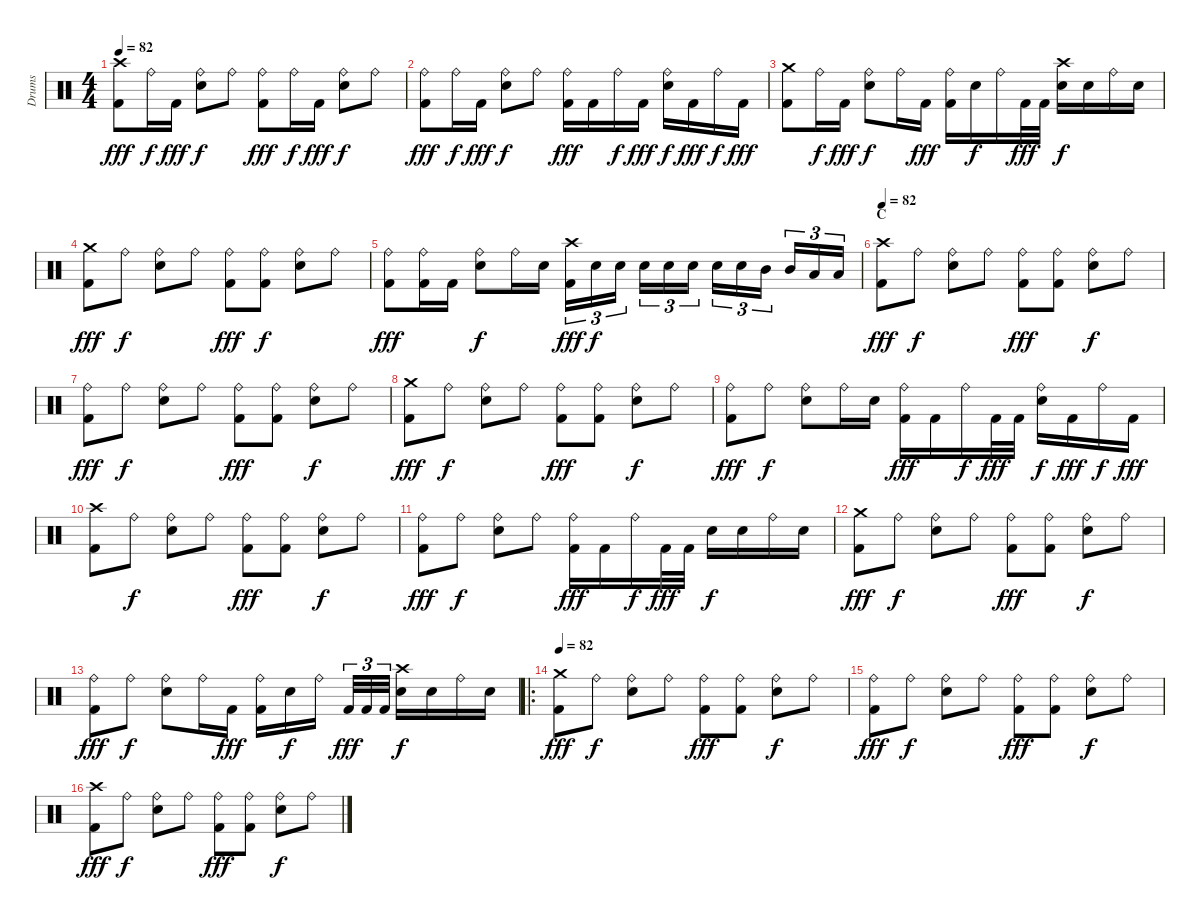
\track ("Drums" "Drums") {instrument percussion}
\staff {score}
\articulation defaults
\ts (4 4)
\tempo 82
\clef neutral
\ks c
("Crash high (hit)" "Kick (hit) 2").8{dy fff} "Ride (bell)".16{dy f} "Kick (hit) 2".16{dy fff} ("Ride (bell)" "Snare (hit) 2").8{dy f} "Ride (bell)".8 ("Ride (bell)" "Kick (hit) 2").8{dy fff} "Ride (bell)".16{dy f} "Kick (hit) 2".16{dy fff} ("Ride (bell)" "Snare (hit) 2").8{dy f} "Ride (bell)".8 |
("Ride (bell)" "Kick (hit) 2").8{dy fff} "Ride (bell)".16{dy f} "Kick (hit) 2".16{dy fff} ("Ride (bell)" "Snare (hit) 2").8{dy f} "Ride (bell)".8 ("Ride (bell)" "Kick (hit) 2").16{dy fff} "Kick (hit) 2".16 "Ride (bell)".16{dy f} "Kick (hit) 2".16{dy fff} ("Ride (bell)" "Snare (hit) 2").16{dy f} "Kick (hit) 2".16{dy fff} "Ride (bell)".16{dy f} "Kick (hit) 2".16{dy fff} |
("Crash medium (hit)" "Kick (hit) 2").8 "Ride (bell)".16{dy f} "Kick (hit) 2".16{dy fff} ("Ride (bell)" "Snare (hit) 2").8{dy f} "Ride (bell)".16 "Kick (hit) 2".16{dy fff} ("Ride (bell)" "Kick (hit) 2").16 "Snare (hit) 2".16{dy f} "Ride (bell)".16 "Kick (hit) 2".32{dy fff} "Kick (hit) 2".32 ("Crash high (hit)" "Snare (hit) 2").16{dy f} "Snare (hit) 2".16 "Ride (bell)".16 "Snare (hit) 2".16 |
("Crash medium (hit)" "Kick (hit) 2").8{dy fff} "Ride (bell)".8{dy f} ("Ride (bell)" "Snare (hit) 2").8 "Ride (bell)".8 ("Ride (bell)" "Kick (hit) 2").8{dy fff} ("Ride (bell)" "Kick (hit) 2").8{dy f} ("Ride (bell)" "Snare (hit) 2").8 "Ride (bell)".8 |
("Ride (bell)" "Kick (hit) 2").8{dy fff} ("Ride (bell)" "Kick (hit) 2").16 "Kick (hit) 2".16 ("Ride (bell)" "Snare (hit) 2").8{dy f} "Ride (bell)".16 "Snare (hit) 2".16 ("Crash high (hit)" "Kick (hit) 2").16{tu (3 2) dy fff} "Snare (hit) 2".16{tu (3 2) dy f} "Snare (hit) 2".16{tu (3 2)} "Snare (hit) 2".16{tu (3 2)} "Snare (hit) 2".16{tu (3 2)} "Snare (hit) 2".16{tu (3 2)} "Snare (hit) 2".16{tu (3 2)} "Snare (hit) 2".16{tu (3 2)} "Mid Tom (hit)".16{tu (3 2)} "Mid Tom (hit)".16{tu (3 2)} "Low Tom (hit)".16{tu (3 2)} "Low Tom (hit)".16{tu (3 2)} |
\section ("" "C")
\tempo 82
("Crash high (hit)" "Kick (hit) 2").8{dy fff} "Ride (bell)".8{dy f} ("Ride (bell)" "Snare (hit) 2").8 "Ride (bell)".8 ("Ride (bell)" "Kick (hit) 2").8{dy fff} ("Ride (bell)" "Kick (hit) 2").8 ("Ride (bell)" "Snare (hit) 2").8{dy f} "Ride (bell)".8 |
("Ride (bell)" "Kick (hit) 2").8{dy fff} "Ride (bell)".8{dy f} ("Ride (bell)" "Snare (hit) 2").8 "Ride (bell)".8 ("Ride (bell)" "Kick (hit) 2").8{dy fff} ("Ride (bell)" "Kick (hit) 2").8 ("Ride (bell)" "Snare (hit) 2").8{dy f} "Ride (bell)".8 |
("Crash medium (hit)" "Kick (hit) 2").8{dy fff} "Ride (bell)".8{dy f} ("Ride (bell)" "Snare (hit) 2").8 "Ride (bell)".8 ("Ride (bell)" "Kick (hit) 2").8{dy fff} ("Ride (bell)" "Kick (hit) 2").8 ("Ride (bell)" "Snare (hit) 2").8{dy f} "Ride (bell)".8 |
("Ride (bell)" "Kick (hit) 2").8{dy fff} "Ride (bell)".8{dy f} ("Ride (bell)" "Snare (hit) 2").8 "Ride (bell)".16 "Snare (hit) 2".16 ("Ride (bell)" "Kick (hit) 2").16{dy fff} "Kick (hit) 2".16 "Ride (bell)".16{dy f} "Kick (hit) 2".32{dy fff} "Kick (hit) 2".32 ("Ride (bell)" "Snare (hit) 2").16{dy f} "Kick (hit) 2".16{dy fff} "Ride (bell)".16{dy f} "Kick (hit) 2".16{dy fff} |
("Crash high (hit)" "Kick (hit) 2").8 "Ride (bell)".8{dy f} ("Ride (bell)" "Snare (hit) 2").8 "Ride (bell)".8 ("Ride (bell)" "Kick (hit) 2").8{dy fff} ("Ride (bell)" "Kick (hit) 2").8 ("Ride (bell)" "Snare (hit) 2").8{dy f} "Ride (bell)".8 |
("Ride (bell)" "Kick (hit) 2").8{dy fff} "Ride (bell)".8{dy f} ("Ride (bell)" "Snare (hit) 2").8 "Ride (bell)".8 ("Ride (bell)" "Kick (hit) 2").16{dy fff} "Kick (hit) 2".16 "Ride (bell)".16{dy f} "Kick (hit) 2".32{dy fff} "Kick (hit) 2".32 "Snare (hit) 2".16{dy f} "Snare (hit) 2".16 "Ride (bell)".16 "Snare (hit) 2".16 |
("Crash medium (hit)" "Kick (hit) 2").8{dy fff} "Ride (bell)".8{dy f} ("Ride (bell)" "Snare (hit) 2").8 "Ride (bell)".8 ("Ride (bell)" "Kick (hit) 2").8{dy fff} ("Ride (bell)" "Kick (hit) 2").8 ("Ride (bell)" "Snare (hit) 2").8{dy f} "Ride (bell)".8 |
("Ride (bell)" "Kick (hit) 2").8{dy fff} "Ride (bell)".8{dy f} ("Ride (bell)" "Snare (hit) 2").8 "Ride (bell)".16 "Kick (hit) 2".16{dy fff} ("Ride (bell)" "Kick (hit) 2").16 "Snare (hit) 2".16{dy f} "Ride (bell)".16 "Kick (hit) 2".32{tu (3 2) dy fff} "Kick (hit) 2".32{tu (3 2)} "Kick (hit) 2".32{tu (3 2)} ("Crash high (hit)" "Snare (hit) 2").16{dy f} "Snare (hit) 2".16 "Ride (bell)".16 "Snare (hit) 2".16 |
\ro
\tempo 82
("Crash medium (hit)" "Kick (hit) 2").8{dy fff} "Ride (bell)".8{dy f} ("Ride (bell)" "Snare (hit) 2").8 "Ride (bell)".8 ("Ride (bell)" "Kick (hit) 2").8{dy fff} ("Ride (bell)" "Kick (hit) 2").8 ("Ride (bell)" "Snare (hit) 2").8{dy f} "Ride (bell)".8 |
("Ride (bell)" "Kick (hit) 2").8{dy fff} "Ride (bell)".8{dy f} ("Ride (bell)" "Snare (hit) 2").8 "Ride (bell)".8 ("Ride (bell)" "Kick (hit) 2").8{dy fff} ("Ride (bell)" "Kick (hit) 2").8 ("Ride (bell)" "Snare (hit) 2").8{dy f} "Ride (bell)".8 |
("Crash high (hit)" "Kick (hit) 2").8{dy fff} "Ride (bell)".8{dy f} ("Ride (bell)" "Snare (hit) 2").8 "Ride (bell)".8 ("Ride (bell)" "Kick (hit) 2").8{dy fff} ("Ride (bell)" "Kick (hit) 2").8 ("Ride (bell)" "Snare (hit) 2").8{dy f} "Ride (bell)".8
